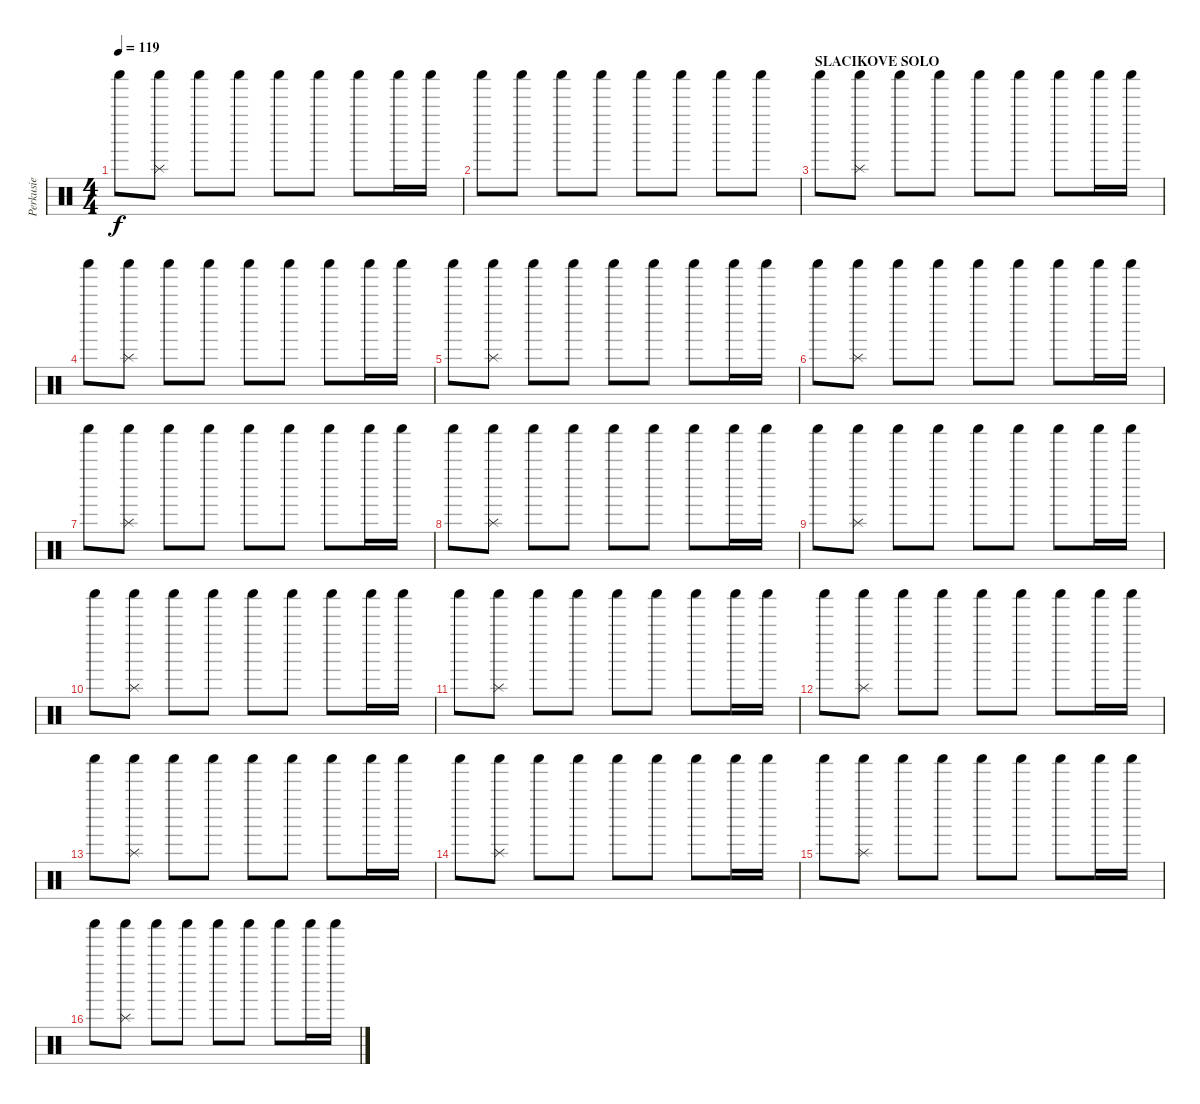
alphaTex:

\track ("Perkusie" "Perkusie") {instrument percussion}
\staff {score}
\articulation defaults
\ts (4 4)
\tempo 119
\clef neutral
\ks c "Shaker (hit)".8{dy f}
("Shaker (hit)" "Splash (hit)").8 "Shaker (hit)".8 "Shaker (hit)".8 "Shaker (hit)".8 "Shaker (hit)".8 "Shaker (hit)".8 "Shaker (hit)".16 "Shaker (hit)".16 |
"Shaker (hit)".8 "Shaker (hit)".8 "Shaker (hit)".8 "Shaker (hit)".8 "Shaker (hit)".8 "Shaker (hit)".8 "Shaker (hit)".8 "Shaker (hit)".8 |
\section ("" "SLACIKOVE SOLO")
"Shaker (hit)".8 ("Shaker (hit)" "Splash (hit)").8 "Shaker (hit)".8 "Shaker (hit)".8 "Shaker (hit)".8 "Shaker (hit)".8 "Shaker (hit)".8 "Shaker (hit)".16 "Shaker (hit)".16 |
"Shaker (hit)".8 ("Shaker (hit)" "Splash (hit)").8 "Shaker (hit)".8 "Shaker (hit)".8 "Shaker (hit)".8 "Shaker (hit)".8 "Shaker (hit)".8 "Shaker (hit)".16 "Shaker (hit)".16 |
"Shaker (hit)".8 ("Shaker (hit)" "Splash (hit)").8 "Shaker (hit)".8 "Shaker (hit)".8 "Shaker (hit)".8 "Shaker (hit)".8 "Shaker (hit)".8 "Shaker (hit)".16 "Shaker (hit)".16 |
"Shaker (hit)".8 ("Shaker (hit)" "Splash (hit)").8 "Shaker (hit)".8 "Shaker (hit)".8 "Shaker (hit)".8 "Shaker (hit)".8 "Shaker (hit)".8 "Shaker (hit)".16 "Shaker (hit)".16 |
"Shaker (hit)".8 ("Shaker (hit)" "Splash (hit)").8 "Shaker (hit)".8 "Shaker (hit)".8 "Shaker (hit)".8 "Shaker (hit)".8 "Shaker (hit)".8 "Shaker (hit)".16 "Shaker (hit)".16 |
"Shaker (hit)".8 ("Shaker (hit)" "Splash (hit)").8 "Shaker (hit)".8 "Shaker (hit)".8 "Shaker (hit)".8 "Shaker (hit)".8 "Shaker (hit)".8 "Shaker (hit)".16 "Shaker (hit)".16 |
"Shaker (hit)".8 ("Shaker (hit)" "Splash (hit)").8 "Shaker (hit)".8 "Shaker (hit)".8 "Shaker (hit)".8 "Shaker (hit)".8 "Shaker (hit)".8 "Shaker (hit)".16 "Shaker (hit)".16 |
"Shaker (hit)".8 ("Shaker (hit)" "Splash (hit)").8 "Shaker (hit)".8 "Shaker (hit)".8 "Shaker (hit)".8 "Shaker (hit)".8 "Shaker (hit)".8 "Shaker (hit)".16 "Shaker (hit)".16 |
"Shaker (hit)".8 ("Shaker (hit)" "Splash (hit)").8 "Shaker (hit)".8 "Shaker (hit)".8 "Shaker (hit)".8 "Shaker (hit)".8 "Shaker (hit)".8 "Shaker (hit)".16 "Shaker (hit)".16 |
"Shaker (hit)".8 ("Shaker (hit)" "Splash (hit)").8 "Shaker (hit)".8 "Shaker (hit)".8 "Shaker (hit)".8 "Shaker (hit)".8 "Shaker (hit)".8 "Shaker (hit)".16 "Shaker (hit)".16 |
"Shaker (hit)".8 ("Shaker (hit)" "Splash (hit)").8 "Shaker (hit)".8 "Shaker (hit)".8 "Shaker (hit)".8 "Shaker (hit)".8 "Shaker (hit)".8 "Shaker (hit)".16 "Shaker (hit)".16 |
"Shaker (hit)".8 ("Shaker (hit)" "Splash (hit)").8 "Shaker (hit)".8 "Shaker (hit)".8 "Shaker (hit)".8 "Shaker (hit)".8 "Shaker (hit)".8 "Shaker (hit)".16 "Shaker (hit)".16 |
"Shaker (hit)".8 ("Shaker (hit)" "Splash (hit)").8 "Shaker (hit)".8 "Shaker (hit)".8 "Shaker (hit)".8 "Shaker (hit)".8 "Shaker (hit)".8 "Shaker (hit)".16 "Shaker (hit)".16 |
"Shaker (hit)".8 ("Shaker (hit)" "Splash (hit)").8 "Shaker (hit)".8 "Shaker (hit)".8 "Shaker (hit)".8 "Shaker (hit)".8 "Shaker (hit)".8 "Shaker (hit)".16 "Shaker (hit)".16
